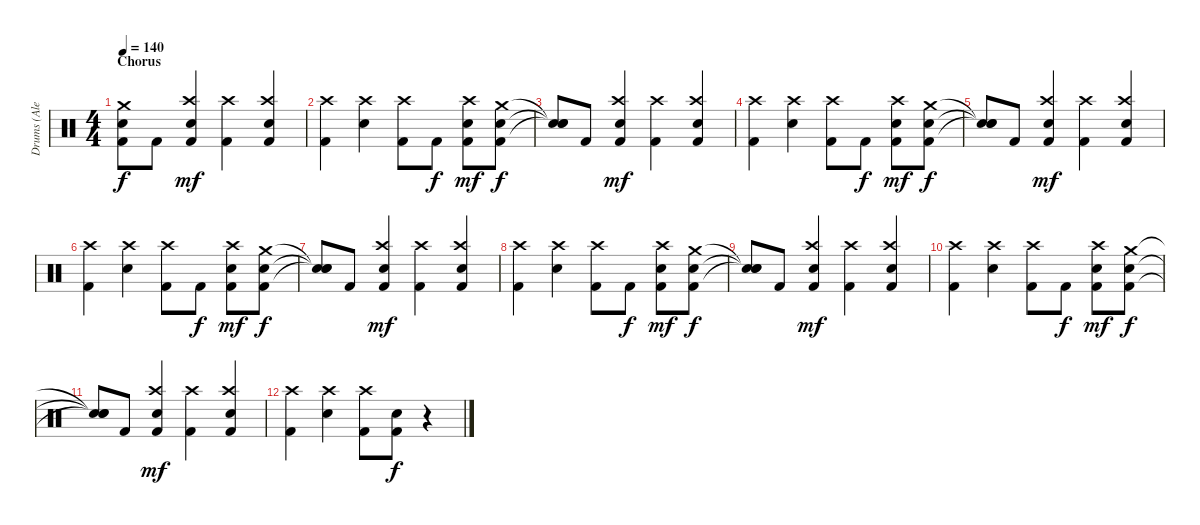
\track ("Drums (Alex Van Halen)" "Drums (Ale") {instrument percussion}
\staff {score}
\articulation defaults
\ts (4 4)
\section ("" "Chorus")
\tempo 140
\clef neutral
\ks c
("Crash medium (hit)"{t} "Snare (hit) 2"{t} "Kick (hit) 2"{t}).8{dy f} "Kick (hit) 2".8 ("Crash high (hit)" "Electric Snare (hit)" "Kick (hit) 2").4{dy mf} ("Crash high (hit)" "Kick (hit) 2").4 ("Crash high (hit)" "Electric Snare (hit)" "Kick (hit) 2").4 |
("Crash high (hit)" "Kick (hit) 2").4 ("Crash high (hit)" "Electric Snare (hit)").4 ("Crash high (hit)" "Kick (hit) 2").8 "Kick (hit) 2".8{dy f} ("Crash high (hit)" "Snare (hit) 2" "Kick (hit) 2").8{dy mf} ("Crash medium (hit)" "Electric Snare (hit)" "Kick (hit) 2").8{dy f} |
("Snare (hit)"{t} "Snare (hit)"{t} "Snare (hit)"{t}).8 "Kick (hit) 2".8 ("Crash high (hit)" "Electric Snare (hit)" "Kick (hit) 2").4{dy mf} ("Crash high (hit)" "Kick (hit) 2").4 ("Crash high (hit)" "Electric Snare (hit)" "Kick (hit) 2").4 |
("Crash high (hit)" "Kick (hit) 2").4 ("Crash high (hit)" "Electric Snare (hit)").4 ("Crash high (hit)" "Kick (hit) 2").8 "Kick (hit) 2".8{dy f} ("Crash high (hit)" "Snare (hit) 2" "Kick (hit) 2").8{dy mf} ("Crash medium (hit)" "Electric Snare (hit)" "Kick (hit) 2").8{dy f} |
("Snare (hit)"{t} "Snare (hit)"{t} "Snare (hit)"{t}).8 "Kick (hit) 2".8 ("Crash high (hit)" "Electric Snare (hit)" "Kick (hit) 2").4{dy mf} ("Crash high (hit)" "Kick (hit) 2").4 ("Crash high (hit)" "Electric Snare (hit)" "Kick (hit) 2").4 |
("Crash high (hit)" "Kick (hit) 2").4 ("Crash high (hit)" "Electric Snare (hit)").4 ("Crash high (hit)" "Kick (hit) 2").8 "Kick (hit) 2".8{dy f} ("Crash high (hit)" "Snare (hit) 2" "Kick (hit) 2").8{dy mf} ("Crash medium (hit)" "Electric Snare (hit)" "Kick (hit) 2").8{dy f} |
("Snare (hit)"{t} "Snare (hit)"{t} "Snare (hit)"{t}).8 "Kick (hit) 2".8 ("Crash high (hit)" "Electric Snare (hit)" "Kick (hit) 2").4{dy mf} ("Crash high (hit)" "Kick (hit) 2").4 ("Crash high (hit)" "Electric Snare (hit)" "Kick (hit) 2").4 |
("Crash high (hit)" "Kick (hit) 2").4 ("Crash high (hit)" "Electric Snare (hit)").4 ("Crash high (hit)" "Kick (hit) 2").8 "Kick (hit) 2".8{dy f} ("Crash high (hit)" "Snare (hit) 2" "Kick (hit) 2").8{dy mf} ("Crash medium (hit)" "Electric Snare (hit)" "Kick (hit) 2").8{dy f} |
("Snare (hit)"{t} "Snare (hit)"{t} "Snare (hit)"{t}).8 "Kick (hit) 2".8 ("Crash high (hit)" "Electric Snare (hit)" "Kick (hit) 2").4{dy mf} ("Crash high (hit)" "Kick (hit) 2").4 ("Crash high (hit)" "Electric Snare (hit)" "Kick (hit) 2").4 |
("Crash high (hit)" "Kick (hit) 2").4 ("Crash high (hit)" "Electric Snare (hit)").4 ("Crash high (hit)" "Kick (hit) 2").8 "Kick (hit) 2".8{dy f} ("Crash high (hit)" "Snare (hit) 2" "Kick (hit) 2").8{dy mf} ("Crash medium (hit)" "Electric Snare (hit)" "Kick (hit) 2").8{dy f} |
("Snare (hit)"{t} "Snare (hit)"{t} "Snare (hit)"{t}).8 "Kick (hit) 2".8 ("Crash high (hit)" "Electric Snare (hit)" "Kick (hit) 2").4{dy mf} ("Crash high (hit)" "Kick (hit) 2").4 ("Crash high (hit)" "Electric Snare (hit)" "Kick (hit) 2").4 |
("Crash high (hit)" "Kick (hit) 2").4 ("Crash high (hit)" "Electric Snare (hit)").4 ("Crash high (hit)" "Kick (hit) 2").8 ("Snare (hit) 2" "Kick (hit) 2").8{dy f} r.4
